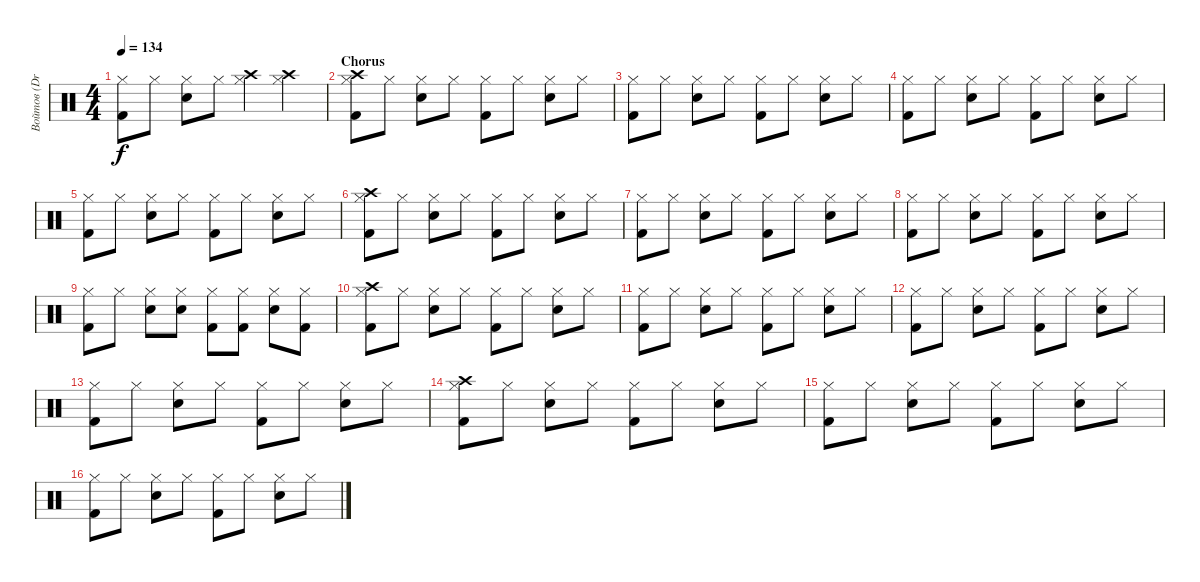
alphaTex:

\track ("Войтов (Drums)" "Войтов (Dr") {instrument percussion}
\staff {score}
\articulation defaults
\ts (4 4)
\tempo 134
\clef neutral
\ks c
("Hi-Hat (closed)" "Kick (hit) 2").8{dy f} "Hi-Hat (closed)".8 ("Hi-Hat (closed)" "Electric Snare (hit)").8 "Hi-Hat (closed)".8 ("Hi-Hat (closed)" "Crash high (hit)").4 ("Hi-Hat (closed)" "Crash high (hit)").4 |
\section ("" "Chorus")
("Hi-Hat (closed)" "Kick (hit) 2" "Crash high (hit)").8 "Hi-Hat (closed)".8 ("Hi-Hat (closed)" "Electric Snare (hit)").8 "Hi-Hat (closed)".8 ("Hi-Hat (closed)" "Kick (hit) 2").8 "Hi-Hat (closed)".8 ("Hi-Hat (closed)" "Electric Snare (hit)").8 "Hi-Hat (closed)".8 |
("Hi-Hat (closed)" "Kick (hit) 2").8 "Hi-Hat (closed)".8 ("Hi-Hat (closed)" "Electric Snare (hit)").8 "Hi-Hat (closed)".8 ("Hi-Hat (closed)" "Kick (hit) 2").8 "Hi-Hat (closed)".8 ("Hi-Hat (closed)" "Electric Snare (hit)").8 "Hi-Hat (closed)".8 |
("Hi-Hat (closed)" "Kick (hit) 2").8 "Hi-Hat (closed)".8 ("Hi-Hat (closed)" "Electric Snare (hit)").8 "Hi-Hat (closed)".8 ("Hi-Hat (closed)" "Kick (hit) 2").8 "Hi-Hat (closed)".8 ("Hi-Hat (closed)" "Electric Snare (hit)").8 "Hi-Hat (closed)".8 |
("Hi-Hat (closed)" "Kick (hit) 2").8 "Hi-Hat (closed)".8 ("Hi-Hat (closed)" "Electric Snare (hit)").8 "Hi-Hat (closed)".8 ("Hi-Hat (closed)" "Kick (hit) 2").8 "Hi-Hat (closed)".8 ("Hi-Hat (closed)" "Electric Snare (hit)").8 "Hi-Hat (closed)".8 |
("Hi-Hat (closed)" "Kick (hit) 2" "Crash high (hit)").8 "Hi-Hat (closed)".8 ("Hi-Hat (closed)" "Electric Snare (hit)").8 "Hi-Hat (closed)".8 ("Hi-Hat (closed)" "Kick (hit) 2").8 "Hi-Hat (closed)".8 ("Hi-Hat (closed)" "Electric Snare (hit)").8 "Hi-Hat (closed)".8 |
("Hi-Hat (closed)" "Kick (hit) 2").8 "Hi-Hat (closed)".8 ("Hi-Hat (closed)" "Electric Snare (hit)").8 "Hi-Hat (closed)".8 ("Hi-Hat (closed)" "Kick (hit) 2").8 "Hi-Hat (closed)".8 ("Hi-Hat (closed)" "Electric Snare (hit)").8 "Hi-Hat (closed)".8 |
("Hi-Hat (closed)" "Kick (hit) 2").8 "Hi-Hat (closed)".8 ("Hi-Hat (closed)" "Electric Snare (hit)").8 "Hi-Hat (closed)".8 ("Hi-Hat (closed)" "Kick (hit) 2").8 "Hi-Hat (closed)".8 ("Hi-Hat (closed)" "Electric Snare (hit)").8 "Hi-Hat (closed)".8 |
("Hi-Hat (closed)" "Kick (hit) 2").8 "Hi-Hat (closed)".8 ("Hi-Hat (closed)" "Electric Snare (hit)").8 ("Hi-Hat (closed)" "Electric Snare (hit)").8 ("Hi-Hat (closed)" "Kick (hit) 2").8 ("Hi-Hat (closed)" "Kick (hit) 2").8 ("Hi-Hat (closed)" "Electric Snare (hit)").8 ("Hi-Hat (closed)" "Kick (hit) 2").8 |
("Hi-Hat (closed)" "Kick (hit) 2" "Crash high (hit)").8 "Hi-Hat (closed)".8 ("Hi-Hat (closed)" "Electric Snare (hit)").8 "Hi-Hat (closed)".8 ("Hi-Hat (closed)" "Kick (hit) 2").8 "Hi-Hat (closed)".8 ("Hi-Hat (closed)" "Electric Snare (hit)").8 "Hi-Hat (closed)".8 |
("Hi-Hat (closed)" "Kick (hit) 2").8 "Hi-Hat (closed)".8 ("Hi-Hat (closed)" "Electric Snare (hit)").8 "Hi-Hat (closed)".8 ("Hi-Hat (closed)" "Kick (hit) 2").8 "Hi-Hat (closed)".8 ("Hi-Hat (closed)" "Electric Snare (hit)").8 "Hi-Hat (closed)".8 |
("Hi-Hat (closed)" "Kick (hit) 2").8 "Hi-Hat (closed)".8 ("Hi-Hat (closed)" "Electric Snare (hit)").8 "Hi-Hat (closed)".8 ("Hi-Hat (closed)" "Kick (hit) 2").8 "Hi-Hat (closed)".8 ("Hi-Hat (closed)" "Electric Snare (hit)").8 "Hi-Hat (closed)".8 |
("Hi-Hat (closed)" "Kick (hit) 2").8 "Hi-Hat (closed)".8 ("Hi-Hat (closed)" "Electric Snare (hit)").8 "Hi-Hat (closed)".8 ("Hi-Hat (closed)" "Kick (hit) 2").8 "Hi-Hat (closed)".8 ("Hi-Hat (closed)" "Electric Snare (hit)").8 "Hi-Hat (closed)".8 |
("Hi-Hat (closed)" "Kick (hit) 2" "Crash high (hit)").8 "Hi-Hat (closed)".8 ("Hi-Hat (closed)" "Electric Snare (hit)").8 "Hi-Hat (closed)".8 ("Hi-Hat (closed)" "Kick (hit) 2").8 "Hi-Hat (closed)".8 ("Hi-Hat (closed)" "Electric Snare (hit)").8 "Hi-Hat (closed)".8 |
("Hi-Hat (closed)" "Kick (hit) 2").8 "Hi-Hat (closed)".8 ("Hi-Hat (closed)" "Electric Snare (hit)").8 "Hi-Hat (closed)".8 ("Hi-Hat (closed)" "Kick (hit) 2").8 "Hi-Hat (closed)".8 ("Hi-Hat (closed)" "Electric Snare (hit)").8 "Hi-Hat (closed)".8 |
("Hi-Hat (closed)" "Kick (hit) 2").8 "Hi-Hat (closed)".8 ("Hi-Hat (closed)" "Electric Snare (hit)").8 "Hi-Hat (closed)".8 ("Hi-Hat (closed)" "Kick (hit) 2").8 "Hi-Hat (closed)".8 ("Hi-Hat (closed)" "Electric Snare (hit)").8 "Hi-Hat (closed)".8
